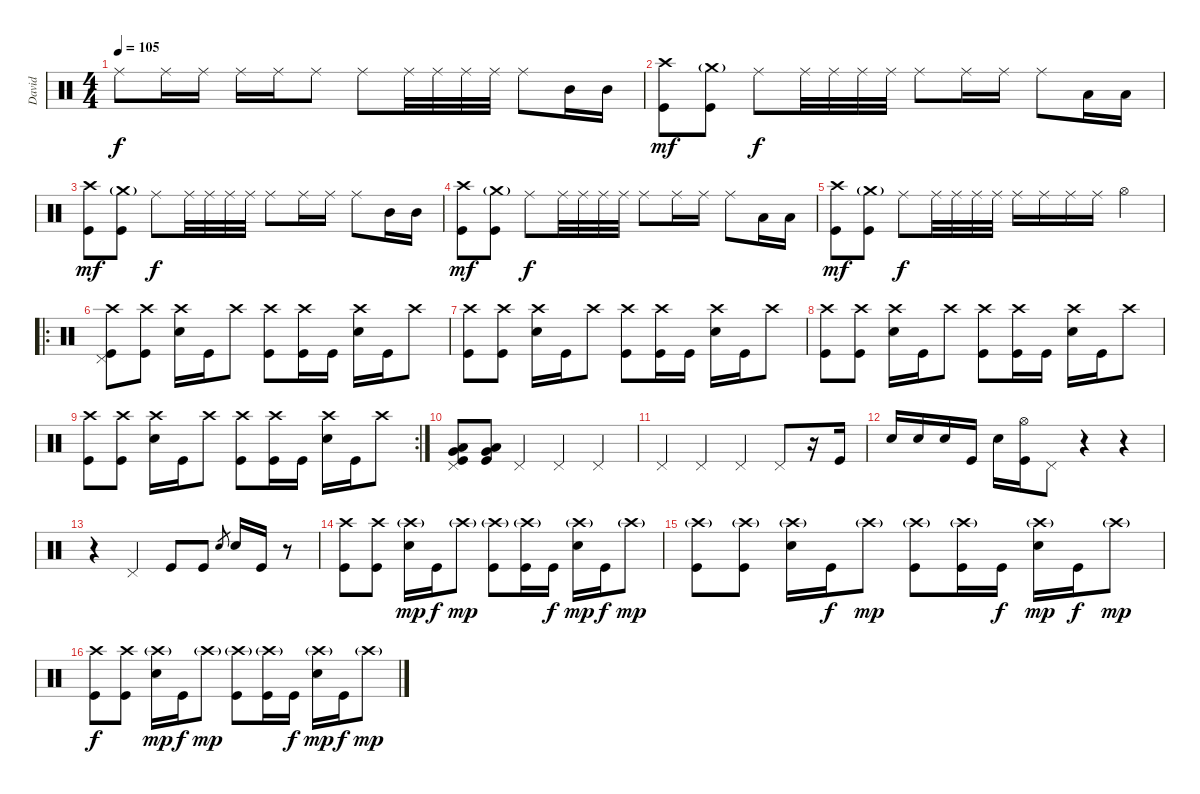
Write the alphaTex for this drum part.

\track ("David" "David") {instrument percussion}
\staff {score}
\articulation defaults
\ts (4 4)
\tempo 105
\clef neutral
\ks c "Ride (middle)".8{dy f} "Ride (middle)".16 "Ride (middle)".16 "Ride (middle)".16 "Ride (middle)".16 "Ride (middle)".8 "Ride (middle)".8 "Ride (middle)".32 "Ride (middle)".32 "Ride (middle)".32 "Ride (middle)".32 "Ride (middle)".8 "Mid Tom (hit)".16 "Mid Tom (hit)".16
|
("Crash high (hit)" "Kick (hit)").8{dy mf} ("Kick (hit)" "Crash medium (hit)"{g}).8 "Ride (middle)".8{dy f} "Ride (middle)".32 "Ride (middle)".32 "Ride (middle)".32 "Ride (middle)".32 "Ride (middle)".8 "Ride (middle)".16 "Ride (middle)".16 "Ride (middle)".8 "Low Floor Tom (hit)".16 "Low Floor Tom (hit)".16 |
("Crash high (hit)" "Kick (hit)").8{dy mf} ("Kick (hit)" "Crash medium (hit)"{g}).8 "Ride (middle)".8{dy f} "Ride (middle)".32 "Ride (middle)".32 "Ride (middle)".32 "Ride (middle)".32 "Ride (middle)".8 "Ride (middle)".16 "Ride (middle)".16 "Ride (middle)".8 "Mid Tom (hit)".16 "Mid Tom (hit)".16 |
("Crash high (hit)" "Kick (hit)").8{dy mf} ("Kick (hit)" "Crash medium (hit)"{g}).8 "Ride (middle)".8{dy f} "Ride (middle)".32 "Ride (middle)".32 "Ride (middle)".32 "Ride (middle)".32 "Ride (middle)".8 "Ride (middle)".16 "Ride (middle)".16 "Ride (middle)".8 "Low Floor Tom (hit)".16 "Low Floor Tom (hit)".16 |
("Crash high (hit)" "Kick (hit)").8{dy mf} ("Kick (hit)" "Crash medium (hit)"{g}).8 "Ride (middle)".8{dy f} "Ride (middle)".32 "Ride (middle)".32 "Ride (middle)".32 "Ride (middle)".32 "Ride (middle)".16 "Ride (middle)".16 "Ride (middle)".16 "Ride (middle)".16 "Hi-Hat (open)".4 |
\ro
("Crash high (hit)" "Kick (hit)" "Pedal Hi-Hat (hit)").8 ("Kick (hit)" "Crash high (hit)").8 ("Crash high (hit)" "Snare (hit) 2").16 "Kick (hit)".16 "Crash high (hit)".8 ("Kick (hit)" "Crash high (hit)").8 ("Kick (hit)" "Crash high (hit)").16 "Kick (hit)".16 ("Snare (hit) 2" "Crash high (hit)").16 "Kick (hit)".16 "Crash high (hit)".8 |
("Crash high (hit)" "Kick (hit)").8 ("Kick (hit)" "Crash high (hit)").8 ("Crash high (hit)" "Snare (hit) 2").16 "Kick (hit)".16 "Crash high (hit)".8 ("Kick (hit)" "Crash high (hit)").8 ("Kick (hit)" "Crash high (hit)").16 "Kick (hit)".16 ("Snare (hit) 2" "Crash high (hit)").16 "Kick (hit)".16 "Crash high (hit)".8 |
("Crash high (hit)" "Kick (hit)").8 ("Kick (hit)" "Crash high (hit)").8 ("Crash high (hit)" "Snare (hit) 2").16 "Kick (hit)".16 "Crash high (hit)".8 ("Kick (hit)" "Crash high (hit)").8 ("Kick (hit)" "Crash high (hit)").16 "Kick (hit)".16 ("Snare (hit) 2" "Crash high (hit)").16 "Kick (hit)".16 "Crash high (hit)".8 |
\rc 2
("Crash high (hit)" "Kick (hit)").8 ("Kick (hit)" "Crash high (hit)").8 ("Crash high (hit)" "Snare (hit) 2").16 "Kick (hit)".16 "Crash high (hit)".8 ("Kick (hit)" "Crash high (hit)").8 ("Kick (hit)" "Crash high (hit)").16 "Kick (hit)".16 ("Snare (hit) 2" "Crash high (hit)").16 "Kick (hit)".16 "Crash high (hit)".8 |
("Low Floor Tom (hit)" "Very Low Tom (hit)" "Kick (hit)" "Pedal Hi-Hat (hit)").8 ("Kick (hit)" "Low Floor Tom (hit)" "Very Low Tom (hit)").8 "Pedal Hi-Hat (hit)".4 "Pedal Hi-Hat (hit)".4 "Pedal Hi-Hat (hit)".4 |
"Pedal Hi-Hat (hit)".4 "Pedal Hi-Hat (hit)".4 "Pedal Hi-Hat (hit)".4 "Pedal Hi-Hat (hit)".8 r.16 "Kick (hit)".16 |
"Snare (hit) 2".16 "Snare (hit) 2".16 "Snare (hit) 2".16 "Kick (hit)".16 "Snare (hit) 2".16 ("Kick (hit)" "Hi-Hat (open)").16 "Pedal Hi-Hat (hit)".8 r.4 r.4 |
r.4 "Pedal Hi-Hat (hit)".4 "Kick (hit)".8 "Kick (hit)".8 "Snare (hit) 2".8{gr} "Snare (hit) 2".16 "Kick (hit)".16 r.8 |
("Crash high (hit)" "Kick (hit)").8 ("Kick (hit)" "Crash high (hit)").8 ("Snare (hit) 2" "Crash high (hit)"{g}).16{dy mp} "Kick (hit)".16{dy f} "Crash high (hit)"{g}.8{dy mp} ("Crash high (hit)"{g} "Kick (hit)").8 ("Kick (hit)" "Crash high (hit)"{g}).16 "Kick (hit)".16{dy f} ("Snare (hit) 2" "Crash high (hit)"{g}).16{dy mp} "Kick (hit)".16{dy f} "Crash high (hit)"{g}.8{dy mp} |
("Crash high (hit)"{g} "Kick (hit)").8 ("Kick (hit)" "Crash high (hit)"{g}).8 ("Snare (hit) 2" "Crash high (hit)"{g}).16 "Kick (hit)".16{dy f} "Crash high (hit)"{g}.8{dy mp} ("Crash high (hit)"{g} "Kick (hit)").8 ("Crash high (hit)"{g} "Kick (hit)").16 "Kick (hit)".16{dy f} ("Crash high (hit)"{g} "Snare (hit) 2").16{dy mp} "Kick (hit)".16{dy f} "Crash high (hit)"{g}.8{dy mp} |
("Crash high (hit)" "Kick (hit)").8{dy f} ("Kick (hit)" "Crash high (hit)").8 ("Snare (hit) 2" "Crash high (hit)"{g}).16{dy mp} "Kick (hit)".16{dy f} "Crash high (hit)"{g}.8{dy mp} ("Crash high (hit)"{g} "Kick (hit)").8 ("Crash high (hit)"{g} "Kick (hit)").16 "Kick (hit)".16{dy f} ("Crash high (hit)"{g} "Snare (hit) 2").16{dy mp} "Kick (hit)".16{dy f} "Crash high (hit)"{g}.8{dy mp}
